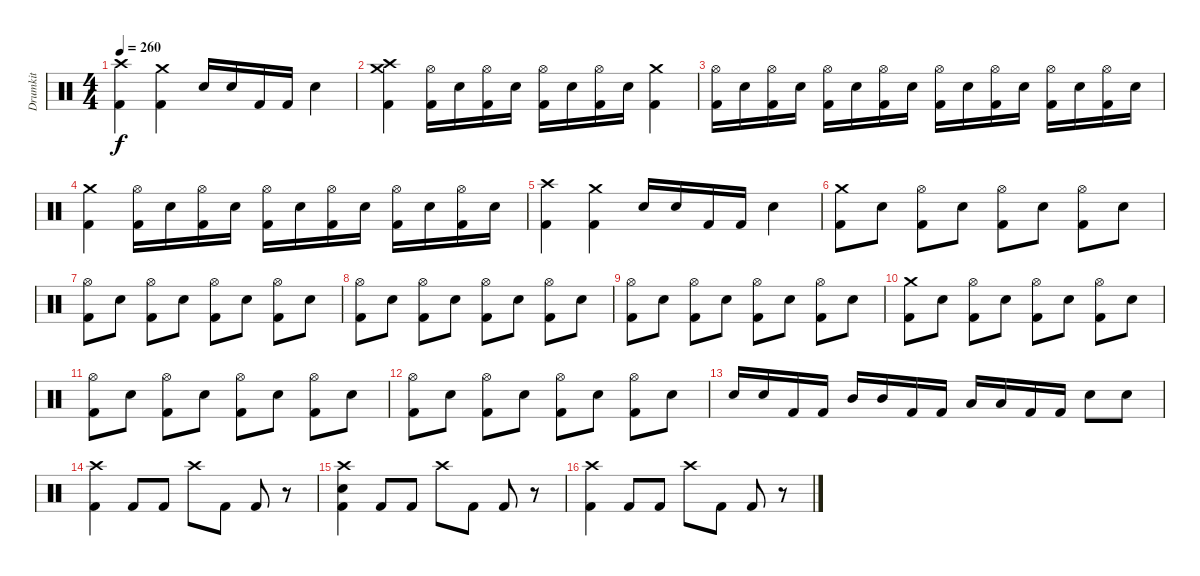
\track ("Drumkit" "Drumkit") {instrument percussion}
\staff {score}
\articulation defaults
\ts (4 4)
\tempo 260
\clef neutral
\ks c
("Crash high (hit)" "Kick (hit) 2").4{dy f} ("Crash medium (hit)" "Kick (hit) 2").4 "Electric Snare (hit)".16 "Electric Snare (hit)".16 "Kick (hit) 2".16 "Kick (hit) 2".16 "Electric Snare (hit)".4 |
("Crash medium (hit)" "Crash high (hit)" "Kick (hit) 2").4 ("Hi-Hat (open)" "Kick (hit) 2").16 "Electric Snare (hit)".16 ("Hi-Hat (open)" "Kick (hit) 2").16 "Electric Snare (hit)".16 ("Hi-Hat (open)" "Kick (hit) 2").16 "Electric Snare (hit)".16 ("Hi-Hat (open)" "Kick (hit) 2").16 "Electric Snare (hit)".16 ("Crash medium (hit)" "Kick (hit) 2").4 |
("Hi-Hat (open)" "Kick (hit) 2").16 "Electric Snare (hit)".16 ("Hi-Hat (open)" "Kick (hit) 2").16 "Electric Snare (hit)".16 ("Hi-Hat (open)" "Kick (hit) 2").16 "Electric Snare (hit)".16 ("Hi-Hat (open)" "Kick (hit) 2").16 "Electric Snare (hit)".16 ("Hi-Hat (open)" "Kick (hit) 2").16 "Electric Snare (hit)".16 ("Hi-Hat (open)" "Kick (hit) 2").16 "Electric Snare (hit)".16 ("Hi-Hat (open)" "Kick (hit) 2").16 "Electric Snare (hit)".16 ("Hi-Hat (open)" "Kick (hit) 2").16 "Electric Snare (hit)".16 |
("Crash medium (hit)" "Kick (hit) 2").4 ("Hi-Hat (open)" "Kick (hit) 2").16 "Electric Snare (hit)".16 ("Hi-Hat (open)" "Kick (hit) 2").16 "Electric Snare (hit)".16 ("Hi-Hat (open)" "Kick (hit) 2").16 "Electric Snare (hit)".16 ("Hi-Hat (open)" "Kick (hit) 2").16 "Electric Snare (hit)".16 ("Hi-Hat (open)" "Kick (hit) 2").16 "Electric Snare (hit)".16 ("Hi-Hat (open)" "Kick (hit) 2").16 "Electric Snare (hit)".16 |
("Crash high (hit)" "Kick (hit) 2").4 ("Crash medium (hit)" "Kick (hit) 2").4 "Electric Snare (hit)".16 "Electric Snare (hit)".16 "Kick (hit) 2".16 "Kick (hit) 2".16 "Electric Snare (hit)".4 |
("Crash medium (hit)" "Kick (hit) 2").8 "Electric Snare (hit)".8 ("Hi-Hat (open)" "Kick (hit) 2").8 "Electric Snare (hit)".8 ("Hi-Hat (open)" "Kick (hit) 2").8 "Electric Snare (hit)".8 ("Hi-Hat (open)" "Kick (hit) 2").8 "Electric Snare (hit)".8 |
("Hi-Hat (open)" "Kick (hit) 2").8 "Electric Snare (hit)".8 ("Hi-Hat (open)" "Kick (hit) 2").8 "Electric Snare (hit)".8 ("Hi-Hat (open)" "Kick (hit) 2").8 "Electric Snare (hit)".8 ("Hi-Hat (open)" "Kick (hit) 2").8 "Electric Snare (hit)".8 |
("Hi-Hat (open)" "Kick (hit) 2").8 "Electric Snare (hit)".8 ("Hi-Hat (open)" "Kick (hit) 2").8 "Electric Snare (hit)".8 ("Hi-Hat (open)" "Kick (hit) 2").8 "Electric Snare (hit)".8 ("Hi-Hat (open)" "Kick (hit) 2").8 "Electric Snare (hit)".8 |
("Hi-Hat (open)" "Kick (hit) 2").8 "Electric Snare (hit)".8 ("Hi-Hat (open)" "Kick (hit) 2").8 "Electric Snare (hit)".8 ("Hi-Hat (open)" "Kick (hit) 2").8 "Electric Snare (hit)".8 ("Hi-Hat (open)" "Kick (hit) 2").8 "Electric Snare (hit)".8 |
("Crash medium (hit)" "Kick (hit) 2").8 "Electric Snare (hit)".8 ("Hi-Hat (open)" "Kick (hit) 2").8 "Electric Snare (hit)".8 ("Hi-Hat (open)" "Kick (hit) 2").8 "Electric Snare (hit)".8 ("Hi-Hat (open)" "Kick (hit) 2").8 "Electric Snare (hit)".8 |
("Hi-Hat (open)" "Kick (hit) 2").8 "Electric Snare (hit)".8 ("Hi-Hat (open)" "Kick (hit) 2").8 "Electric Snare (hit)".8 ("Hi-Hat (open)" "Kick (hit) 2").8 "Electric Snare (hit)".8 ("Hi-Hat (open)" "Kick (hit) 2").8 "Electric Snare (hit)".8 |
("Hi-Hat (open)" "Kick (hit) 2").8 "Electric Snare (hit)".8 ("Hi-Hat (open)" "Kick (hit) 2").8 "Electric Snare (hit)".8 ("Hi-Hat (open)" "Kick (hit) 2").8 "Electric Snare (hit)".8 ("Hi-Hat (open)" "Kick (hit) 2").8 "Electric Snare (hit)".8 |
"Electric Snare (hit)".16 "Electric Snare (hit)".16 "Kick (hit) 2".16 "Kick (hit) 2".16 "Mid Tom (hit)".16 "Mid Tom (hit)".16 "Kick (hit) 2".16 "Kick (hit) 2".16 "Low Tom (hit)".16 "Low Tom (hit)".16 "Kick (hit) 2".16 "Kick (hit) 2".16 "Electric Snare (hit)".8 "Electric Snare (hit)".8 |
("Crash high (hit)" "Kick (hit) 2").4 "Kick (hit) 2".8 "Kick (hit) 2".8 "Crash high (hit)".8 "Kick (hit) 2".8 "Kick (hit) 2".8 r.8 |
("Crash high (hit)" "Electric Snare (hit)" "Kick (hit) 2").4 "Kick (hit) 2".8 "Kick (hit) 2".8 "Crash high (hit)".8 "Kick (hit) 2".8 "Kick (hit) 2".8 r.8 |
("Crash high (hit)" "Kick (hit) 2").4 "Kick (hit) 2".8 "Kick (hit) 2".8 "Crash high (hit)".8 "Kick (hit) 2".8 "Kick (hit) 2".8 r.8
